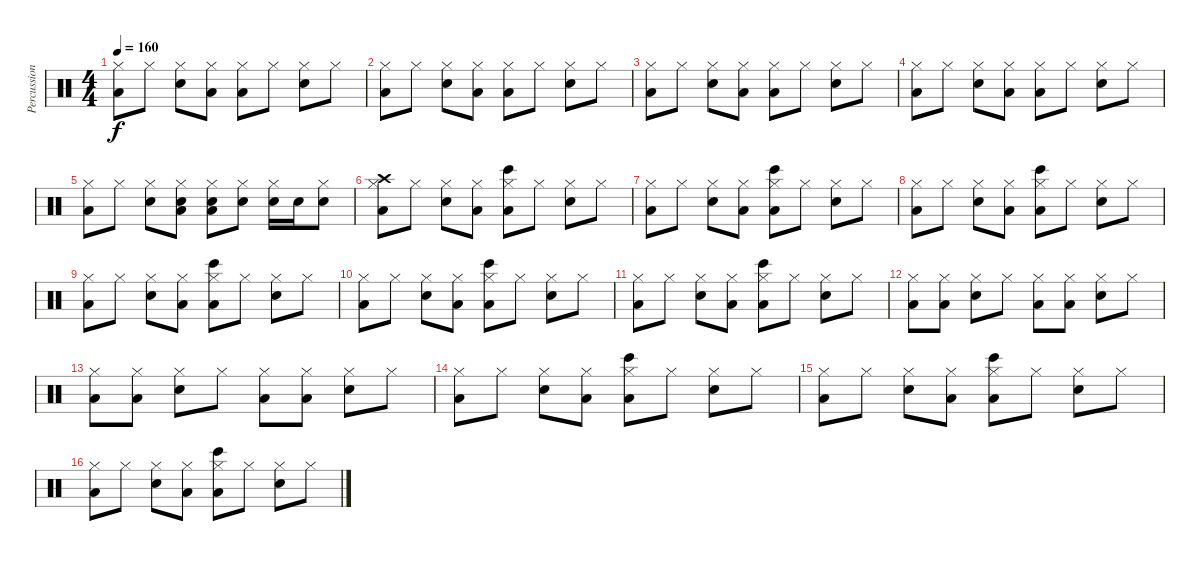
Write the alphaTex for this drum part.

\track ("Percussions" "Percussion") {instrument percussion}
\staff {score}
\articulation defaults
\ts (4 4)
\tempo 160
\clef neutral
\ks c
("Low Floor Tom (hit)" "Hi-Hat (closed)").8{dy f} "Hi-Hat (closed)".8 ("Electric Snare (hit)" "Hi-Hat (closed)").8 ("Low Floor Tom (hit)" "Hi-Hat (closed)").8 ("Low Floor Tom (hit)" "Hi-Hat (closed)").8 "Hi-Hat (closed)".8 ("Electric Snare (hit)" "Hi-Hat (closed)").8 "Hi-Hat (closed)".8 |
("Low Floor Tom (hit)" "Hi-Hat (closed)").8 "Hi-Hat (closed)".8 ("Electric Snare (hit)" "Hi-Hat (closed)").8 ("Low Floor Tom (hit)" "Hi-Hat (closed)").8 ("Low Floor Tom (hit)" "Hi-Hat (closed)").8 "Hi-Hat (closed)".8 ("Electric Snare (hit)" "Hi-Hat (closed)").8 "Hi-Hat (closed)".8 |
("Low Floor Tom (hit)" "Hi-Hat (closed)").8 "Hi-Hat (closed)".8 ("Electric Snare (hit)" "Hi-Hat (closed)").8 ("Low Floor Tom (hit)" "Hi-Hat (closed)").8 ("Low Floor Tom (hit)" "Hi-Hat (closed)").8 "Hi-Hat (closed)".8 ("Electric Snare (hit)" "Hi-Hat (closed)").8 "Hi-Hat (closed)".8 |
("Low Floor Tom (hit)" "Hi-Hat (closed)").8 "Hi-Hat (closed)".8 ("Electric Snare (hit)" "Hi-Hat (closed)").8 ("Low Floor Tom (hit)" "Hi-Hat (closed)").8 ("Low Floor Tom (hit)" "Hi-Hat (closed)").8 "Hi-Hat (closed)".8 ("Electric Snare (hit)" "Hi-Hat (closed)").8 "Hi-Hat (closed)".8 |
("Low Floor Tom (hit)" "Hi-Hat (closed)").8 "Hi-Hat (closed)".8 ("Electric Snare (hit)" "Hi-Hat (closed)").8 ("Low Floor Tom (hit)" "Electric Snare (hit)" "Hi-Hat (closed)").8 ("Low Floor Tom (hit)" "Electric Snare (hit)" "Hi-Hat (closed)").8 ("Electric Snare (hit)" "Hi-Hat (closed)").8 ("Electric Snare (hit)" "Hi-Hat (closed)").16 "Electric Snare (hit)".16 ("Electric Snare (hit)" "Hi-Hat (closed)").8 |
("Low Floor Tom (hit)" "Hi-Hat (closed)" "Crash high (hit)").8 "Hi-Hat (closed)".8 ("Electric Snare (hit)" "Hi-Hat (closed)").8 ("Low Floor Tom (hit)" "Hi-Hat (closed)").8 ("Low Floor Tom (hit)" "Bongo High (hit)" "Hi-Hat (closed)").8 "Hi-Hat (closed)".8 ("Electric Snare (hit)" "Hi-Hat (closed)").8 "Hi-Hat (closed)".8 |
("Low Floor Tom (hit)" "Hi-Hat (closed)").8 "Hi-Hat (closed)".8 ("Electric Snare (hit)" "Hi-Hat (closed)").8 ("Low Floor Tom (hit)" "Hi-Hat (closed)").8 ("Low Floor Tom (hit)" "Bongo High (hit)" "Hi-Hat (closed)").8 "Hi-Hat (closed)".8 ("Electric Snare (hit)" "Hi-Hat (closed)").8 "Hi-Hat (closed)".8 |
("Low Floor Tom (hit)" "Hi-Hat (closed)").8 "Hi-Hat (closed)".8 ("Electric Snare (hit)" "Hi-Hat (closed)").8 ("Low Floor Tom (hit)" "Hi-Hat (closed)").8 ("Low Floor Tom (hit)" "Bongo High (hit)" "Hi-Hat (closed)").8 "Hi-Hat (closed)".8 ("Electric Snare (hit)" "Hi-Hat (closed)").8 "Hi-Hat (closed)".8 |
("Low Floor Tom (hit)" "Hi-Hat (closed)").8 "Hi-Hat (closed)".8 ("Electric Snare (hit)" "Hi-Hat (closed)").8 ("Low Floor Tom (hit)" "Hi-Hat (closed)").8 ("Low Floor Tom (hit)" "Bongo High (hit)" "Hi-Hat (closed)").8 "Hi-Hat (closed)".8 ("Electric Snare (hit)" "Hi-Hat (closed)").8 "Hi-Hat (closed)".8 |
("Low Floor Tom (hit)" "Hi-Hat (closed)").8 "Hi-Hat (closed)".8 ("Electric Snare (hit)" "Hi-Hat (closed)").8 ("Low Floor Tom (hit)" "Hi-Hat (closed)").8 ("Low Floor Tom (hit)" "Bongo High (hit)" "Hi-Hat (closed)").8 "Hi-Hat (closed)".8 ("Electric Snare (hit)" "Hi-Hat (closed)").8 "Hi-Hat (closed)".8 |
("Low Floor Tom (hit)" "Hi-Hat (closed)").8 "Hi-Hat (closed)".8 ("Electric Snare (hit)" "Hi-Hat (closed)").8 ("Low Floor Tom (hit)" "Hi-Hat (closed)").8 ("Low Floor Tom (hit)" "Bongo High (hit)" "Hi-Hat (closed)").8 "Hi-Hat (closed)".8 ("Electric Snare (hit)" "Hi-Hat (closed)").8 "Hi-Hat (closed)".8 |
("Low Floor Tom (hit)" "Hi-Hat (closed)").8 ("Low Floor Tom (hit)" "Hi-Hat (closed)").8 ("Electric Snare (hit)" "Hi-Hat (closed)").8 "Hi-Hat (closed)".8 ("Low Floor Tom (hit)" "Hi-Hat (closed)").8 ("Low Floor Tom (hit)" "Hi-Hat (closed)").8 ("Electric Snare (hit)" "Hi-Hat (closed)").8 "Hi-Hat (closed)".8 |
("Low Floor Tom (hit)" "Hi-Hat (closed)").8 ("Low Floor Tom (hit)" "Hi-Hat (closed)").8 ("Electric Snare (hit)" "Hi-Hat (closed)").8 "Hi-Hat (closed)".8 ("Low Floor Tom (hit)" "Hi-Hat (closed)").8 ("Low Floor Tom (hit)" "Hi-Hat (closed)").8 ("Electric Snare (hit)" "Hi-Hat (closed)").8 "Hi-Hat (closed)".8 |
("Low Floor Tom (hit)" "Hi-Hat (closed)").8 "Hi-Hat (closed)".8 ("Electric Snare (hit)" "Hi-Hat (closed)").8 ("Low Floor Tom (hit)" "Hi-Hat (closed)").8 ("Low Floor Tom (hit)" "Bongo High (hit)" "Hi-Hat (closed)").8 "Hi-Hat (closed)".8 ("Electric Snare (hit)" "Hi-Hat (closed)").8 "Hi-Hat (closed)".8 |
("Low Floor Tom (hit)" "Hi-Hat (closed)").8 "Hi-Hat (closed)".8 ("Electric Snare (hit)" "Hi-Hat (closed)").8 ("Low Floor Tom (hit)" "Hi-Hat (closed)").8 ("Low Floor Tom (hit)" "Bongo High (hit)" "Hi-Hat (closed)").8 "Hi-Hat (closed)".8 ("Electric Snare (hit)" "Hi-Hat (closed)").8 "Hi-Hat (closed)".8 |
("Low Floor Tom (hit)" "Hi-Hat (closed)").8 "Hi-Hat (closed)".8 ("Electric Snare (hit)" "Hi-Hat (closed)").8 ("Low Floor Tom (hit)" "Hi-Hat (closed)").8 ("Low Floor Tom (hit)" "Bongo High (hit)" "Hi-Hat (closed)").8 "Hi-Hat (closed)".8 ("Electric Snare (hit)" "Hi-Hat (closed)").8 "Hi-Hat (closed)".8
